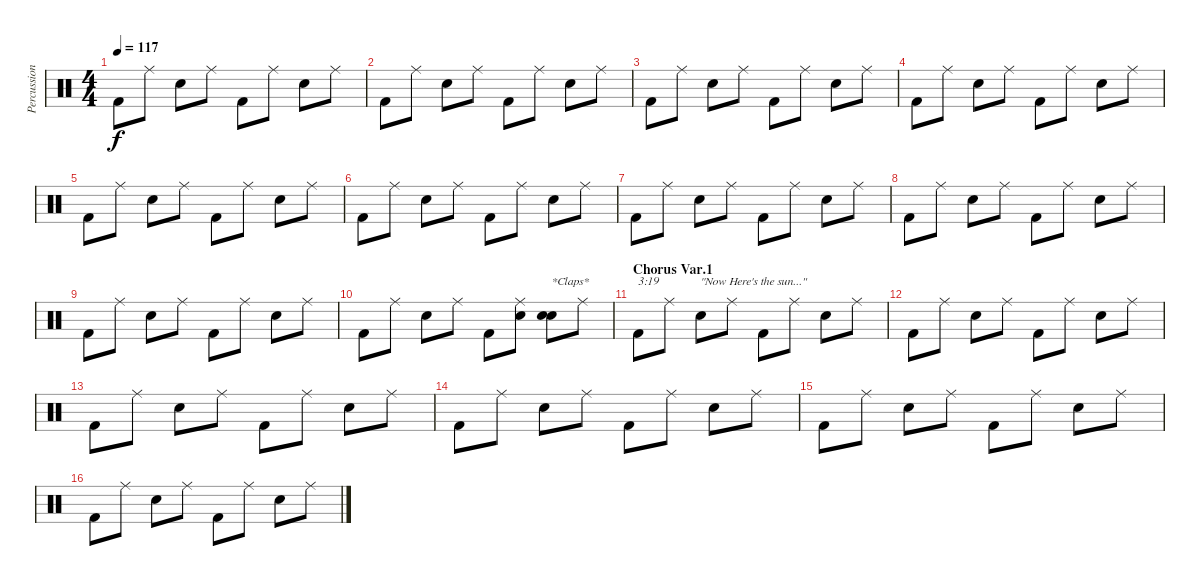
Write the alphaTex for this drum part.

\track ("Percussion" "Percussion") {instrument percussion}
\staff {score}
\articulation defaults
\ts (4 4)
\tempo 117
\clef neutral
\ks c "Kick (hit) 2".8{dy f} "Ride (middle)".8 "Snare (hit) 2".8 "Ride (middle)".8 "Kick (hit) 2".8 "Ride (middle)".8 "Snare (hit) 2".8 "Ride (middle)".8
|
"Kick (hit) 2".8 "Ride (middle)".8 "Snare (hit) 2".8 "Ride (middle)".8 "Kick (hit) 2".8 "Ride (middle)".8 "Snare (hit) 2".8 "Ride (middle)".8 |
"Kick (hit) 2".8 "Ride (middle)".8 "Snare (hit) 2".8 "Ride (middle)".8 "Kick (hit) 2".8 "Ride (middle)".8 "Snare (hit) 2".8 "Ride (middle)".8 |
"Kick (hit) 2".8 "Ride (middle)".8 "Snare (hit) 2".8 "Ride (middle)".8 "Kick (hit) 2".8 "Ride (middle)".8 "Snare (hit) 2".8 "Ride (middle)".8 |
"Kick (hit) 2".8 "Ride (middle)".8 "Snare (hit) 2".8 "Ride (middle)".8 "Kick (hit) 2".8 "Ride (middle)".8 "Snare (hit) 2".8 "Ride (middle)".8 |
"Kick (hit) 2".8 "Ride (middle)".8 "Snare (hit) 2".8 "Ride (middle)".8 "Kick (hit) 2".8 "Ride (middle)".8 "Snare (hit) 2".8 "Ride (middle)".8 |
"Kick (hit) 2".8 "Ride (middle)".8 "Snare (hit) 2".8 "Ride (middle)".8 "Kick (hit) 2".8 "Ride (middle)".8 "Snare (hit) 2".8 "Ride (middle)".8 |
"Kick (hit) 2".8 "Ride (middle)".8 "Snare (hit) 2".8 "Ride (middle)".8 "Kick (hit) 2".8 "Ride (middle)".8 "Snare (hit) 2".8 "Ride (middle)".8 |
"Kick (hit) 2".8 "Ride (middle)".8 "Snare (hit) 2".8 "Ride (middle)".8 "Kick (hit) 2".8 "Ride (middle)".8 "Snare (hit) 2".8 "Ride (middle)".8 |
"Kick (hit) 2".8 "Ride (middle)".8 "Snare (hit) 2".8 "Ride (middle)".8 "Kick (hit) 2".8 ("Ride (middle)" "Hand Clap (hit)").8 ("Snare (hit) 2" "Hand Clap (hit)").8{txt "*Claps*"} "Ride (middle)".8 |
\section ("" "Chorus Var.1")
"Kick (hit) 2".8{txt "3:19"} "Ride (middle)".8 "Snare (hit) 2".8{txt "\"Now Here's the sun...\""} "Ride (middle)".8 "Kick (hit) 2".8 "Ride (middle)".8 "Snare (hit) 2".8 "Ride (middle)".8 |
"Kick (hit) 2".8 "Ride (middle)".8 "Snare (hit) 2".8 "Ride (middle)".8 "Kick (hit) 2".8 "Ride (middle)".8 "Snare (hit) 2".8 "Ride (middle)".8 |
"Kick (hit) 2".8 "Ride (middle)".8 "Snare (hit) 2".8 "Ride (middle)".8 "Kick (hit) 2".8 "Ride (middle)".8 "Snare (hit) 2".8 "Ride (middle)".8 |
"Kick (hit) 2".8 "Ride (middle)".8 "Snare (hit) 2".8 "Ride (middle)".8 "Kick (hit) 2".8 "Ride (middle)".8 "Snare (hit) 2".8 "Ride (middle)".8 |
"Kick (hit) 2".8 "Ride (middle)".8 "Snare (hit) 2".8 "Ride (middle)".8 "Kick (hit) 2".8 "Ride (middle)".8 "Snare (hit) 2".8 "Ride (middle)".8 |
"Kick (hit) 2".8 "Ride (middle)".8 "Snare (hit) 2".8 "Ride (middle)".8 "Kick (hit) 2".8 "Ride (middle)".8 "Snare (hit) 2".8 "Ride (middle)".8
